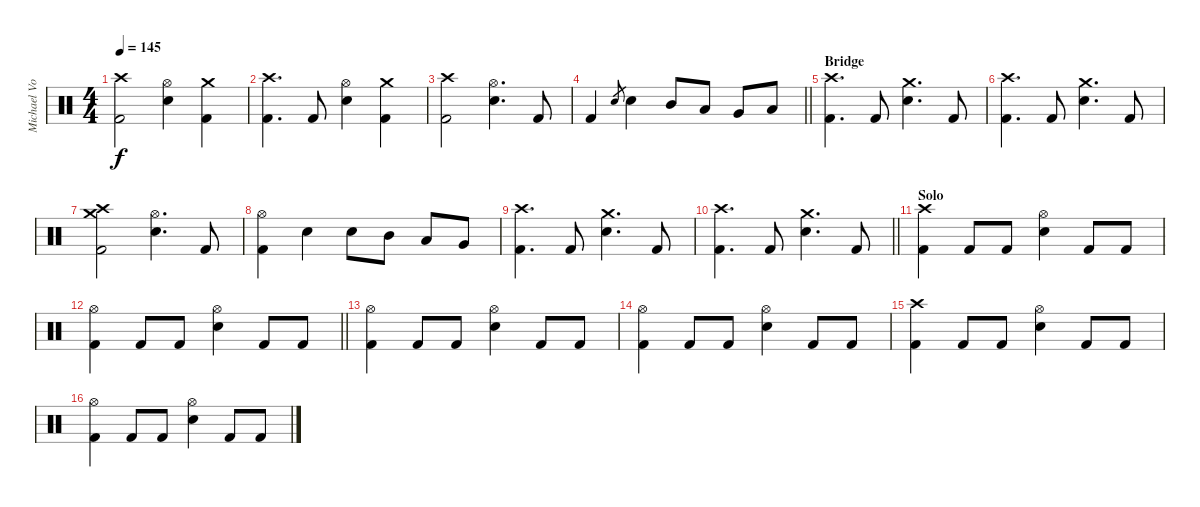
\track ("Michael Von Knorring" "Michael Vo") {instrument percussion}
\staff {score}
\articulation defaults
\ts (4 4)
\tempo 145
\clef neutral
\ks c
("Crash high (hit)" "Kick (hit) 2").2{dy f} ("Hi-Hat (open)" "Snare (hit) 2").4 ("Crash medium (hit)" "Kick (hit) 2").4 |
("Crash high (hit)" "Kick (hit) 2").4{d} "Kick (hit) 2".8 ("Hi-Hat (open)" "Snare (hit) 2").4 ("Crash medium (hit)" "Kick (hit) 2").4 |
("Crash high (hit)" "Kick (hit) 2").2 ("Hi-Hat (open)" "Snare (hit) 2").4{d} "Kick (hit) 2".8 |
\barLineRight lightlight "Kick (hit) 2".4 "Snare (hit) 2".8{gr} "Snare (hit) 2".4 "Mid Tom (hit)".8 "Low Tom (hit)".8 "Very Low Tom (hit)".8 "Low Floor Tom (hit)".8
|
\section ("" "Bridge")
("Crash high (hit)" "Kick (hit) 2").4{d} "Kick (hit) 2".8 ("Crash medium (hit)" "Snare (hit) 2").4{d} "Kick (hit) 2".8 |
("Crash high (hit)" "Kick (hit) 2").4{d} "Kick (hit) 2".8 ("Crash medium (hit)" "Snare (hit) 2").4{d} "Kick (hit) 2".8 |
("Crash medium (hit)" "Crash high (hit)" "Kick (hit) 2").2 ("Hi-Hat (open)" "Snare (hit) 2").4{d} "Kick (hit) 2".8 |
("Hi-Hat (open)" "Kick (hit) 2").4 "Snare (hit) 2".4 "Snare (hit) 2".8 "Mid Tom (hit)".8 "Low Tom (hit)".8 "Very Low Tom (hit)".8 |
("Crash high (hit)" "Kick (hit) 2").4{d} "Kick (hit) 2".8 ("Crash medium (hit)" "Snare (hit) 2").4{d} "Kick (hit) 2".8 |
\barLineRight lightlight
("Crash high (hit)" "Kick (hit) 2").4{d} "Kick (hit) 2".8 ("Crash medium (hit)" "Snare (hit) 2").4{d} "Kick (hit) 2".8 |
\section ("" "Solo")
("Crash high (hit)" "Kick (hit) 2").4 "Kick (hit) 2".8 "Kick (hit) 2".8 ("Hi-Hat (open)" "Snare (hit) 2").4 "Kick (hit) 2".8 "Kick (hit) 2".8 |
\barLineRight lightlight
("Hi-Hat (open)" "Kick (hit) 2").4 "Kick (hit) 2".8 "Kick (hit) 2".8 ("Hi-Hat (open)" "Snare (hit) 2").4 "Kick (hit) 2".8 "Kick (hit) 2".8 |
("Hi-Hat (open)" "Kick (hit) 2").4 "Kick (hit) 2".8 "Kick (hit) 2".8 ("Hi-Hat (open)" "Snare (hit) 2").4 "Kick (hit) 2".8 "Kick (hit) 2".8 |
("Hi-Hat (open)" "Kick (hit) 2").4 "Kick (hit) 2".8 "Kick (hit) 2".8 ("Hi-Hat (open)" "Snare (hit) 2").4 "Kick (hit) 2".8 "Kick (hit) 2".8 |
("Crash high (hit)" "Kick (hit) 2").4 "Kick (hit) 2".8 "Kick (hit) 2".8 ("Hi-Hat (open)" "Snare (hit) 2").4 "Kick (hit) 2".8 "Kick (hit) 2".8 |
("Hi-Hat (open)" "Kick (hit) 2").4 "Kick (hit) 2".8 "Kick (hit) 2".8 ("Hi-Hat (open)" "Snare (hit) 2").4 "Kick (hit) 2".8 "Kick (hit) 2".8
